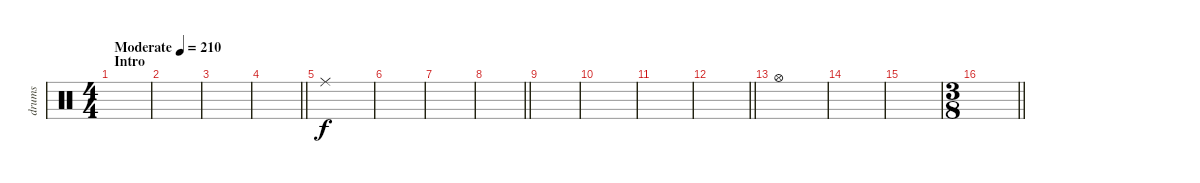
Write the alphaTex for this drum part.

\track ("drums" "drums") {instrument percussion}
\staff {score}
\articulation defaults
\ts (4 4)
\section ("" "Intro")
\tempo (210 "Moderate")
\tempo 110
\tempo (210 "Moderate")
\clef neutral
\ks c
|
|
|
\barLineRight lightlight
|
"Ride (middle)".1 |
|
|
\barLineRight lightlight
|
|
|
|
\barLineRight lightlight
|
"Hi-Hat (open)".1 |
|
|
\ts (3 8)
\barLineRight lightlight
